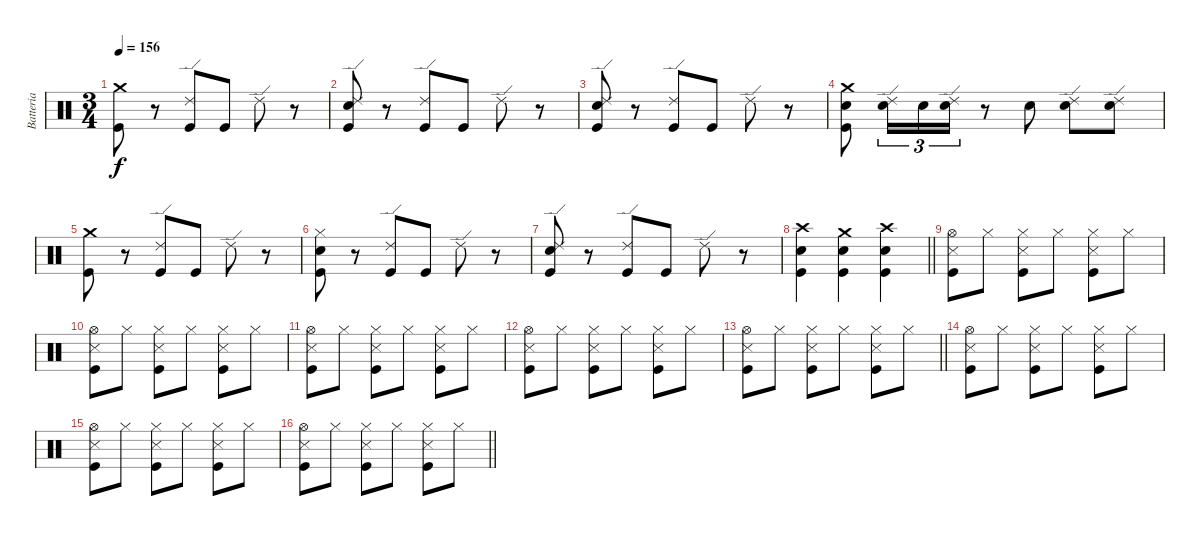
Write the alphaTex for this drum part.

\track ("Batteria" "Batteria") {instrument percussion}
\staff {score}
\articulation defaults
\ts (3 4)
\tempo 156
\clef neutral
\ks c
("Crash medium (hit)" "Kick (hit)").8{dy f} r.8 ("Ride (edge) 2" "Kick (hit)").8 "Kick (hit)".8 "Ride (edge) 2".8 r.8 |
("Ride (edge) 2" "Electric Snare (hit)" "Kick (hit)").8 r.8 ("Ride (edge) 2" "Kick (hit)").8 "Kick (hit)".8 "Ride (edge) 2".8 r.8 |
("Ride (edge) 2" "Electric Snare (hit)" "Kick (hit)").8 r.8 ("Ride (edge) 2" "Kick (hit)").8 "Kick (hit)".8 "Ride (edge) 2".8 r.8 |
("Crash medium (hit)" "Electric Snare (hit)" "Kick (hit)").8 ("Ride (edge) 2" "Electric Snare (hit)").16{tu (3 2)} "Electric Snare (hit)".16{tu (3 2)} ("Ride (edge) 2" "Electric Snare (hit)").16{tu (3 2)} r.8 "Electric Snare (hit)".8 ("Ride (edge) 2" "Electric Snare (hit)").8 ("Ride (edge) 2" "Electric Snare (hit)").8 |
("Crash medium (hit)" "Kick (hit)").8 r.8 ("Ride (edge) 2" "Kick (hit)").8 "Kick (hit)".8 "Ride (edge) 2".8 r.8 |
("Hi-Hat (closed)" "Electric Snare (hit)" "Kick (hit)").8 r.8 ("Ride (edge) 2" "Kick (hit)").8 "Kick (hit)".8 "Ride (edge) 2".8 r.8 |
("Ride (edge) 2" "Electric Snare (hit)" "Kick (hit)").8 r.8 ("Ride (edge) 2" "Kick (hit)").8 "Kick (hit)".8 "Ride (edge) 2".8 r.8 |
\barLineRight lightlight
("Crash high (hit)" "Electric Snare (hit)" "Kick (hit)").4 ("Crash medium (hit)" "Electric Snare (hit)" "Kick (hit)").4 ("Crash high (hit)" "Electric Snare (hit)" "Kick (hit)").4 |
\section ("" "")
("Hi-Hat (open)" "Kick (hit)" "Snare (side stick) 3").8 "Hi-Hat (closed)".8 ("Hi-Hat (closed)" "Kick (hit)" "Snare (side stick) 3").8 "Hi-Hat (closed)".8 ("Hi-Hat (closed)" "Kick (hit)" "Snare (side stick) 3").8 "Hi-Hat (closed)".8 |
("Hi-Hat (open)" "Kick (hit)" "Snare (side stick) 3").8 "Hi-Hat (closed)".8 ("Hi-Hat (closed)" "Kick (hit)" "Snare (side stick) 3").8 "Hi-Hat (closed)".8 ("Hi-Hat (closed)" "Kick (hit)" "Snare (side stick) 3").8 "Hi-Hat (closed)".8 |
("Hi-Hat (open)" "Kick (hit)" "Snare (side stick) 3").8 "Hi-Hat (closed)".8 ("Hi-Hat (closed)" "Kick (hit)" "Snare (side stick) 3").8 "Hi-Hat (closed)".8 ("Hi-Hat (closed)" "Kick (hit)" "Snare (side stick) 3").8 "Hi-Hat (closed)".8 |
("Hi-Hat (open)" "Kick (hit)" "Snare (side stick) 3").8 "Hi-Hat (closed)".8 ("Hi-Hat (closed)" "Kick (hit)" "Snare (side stick) 3").8 "Hi-Hat (closed)".8 ("Hi-Hat (closed)" "Kick (hit)" "Snare (side stick) 3").8 "Hi-Hat (closed)".8 |
\barLineRight lightlight
("Hi-Hat (open)" "Kick (hit)" "Snare (side stick) 3").8 "Hi-Hat (closed)".8 ("Hi-Hat (closed)" "Kick (hit)" "Snare (side stick) 3").8 "Hi-Hat (closed)".8 ("Hi-Hat (closed)" "Kick (hit)" "Snare (side stick) 3").8 "Hi-Hat (closed)".8 |
("Hi-Hat (open)" "Kick (hit)" "Snare (side stick) 3").8 "Hi-Hat (closed)".8 ("Hi-Hat (closed)" "Kick (hit)" "Snare (side stick) 3").8 "Hi-Hat (closed)".8 ("Hi-Hat (closed)" "Kick (hit)" "Snare (side stick) 3").8 "Hi-Hat (closed)".8 |
("Hi-Hat (open)" "Kick (hit)" "Snare (side stick) 3").8 "Hi-Hat (closed)".8 ("Hi-Hat (closed)" "Kick (hit)" "Snare (side stick) 3").8 "Hi-Hat (closed)".8 ("Hi-Hat (closed)" "Kick (hit)" "Snare (side stick) 3").8 "Hi-Hat (closed)".8 |
\barLineRight lightlight
("Hi-Hat (open)" "Kick (hit)" "Snare (side stick) 3").8 "Hi-Hat (closed)".8 ("Hi-Hat (closed)" "Kick (hit)" "Snare (side stick) 3").8 "Hi-Hat (closed)".8 ("Hi-Hat (closed)" "Kick (hit)" "Snare (side stick) 3").8 "Hi-Hat (closed)".8
